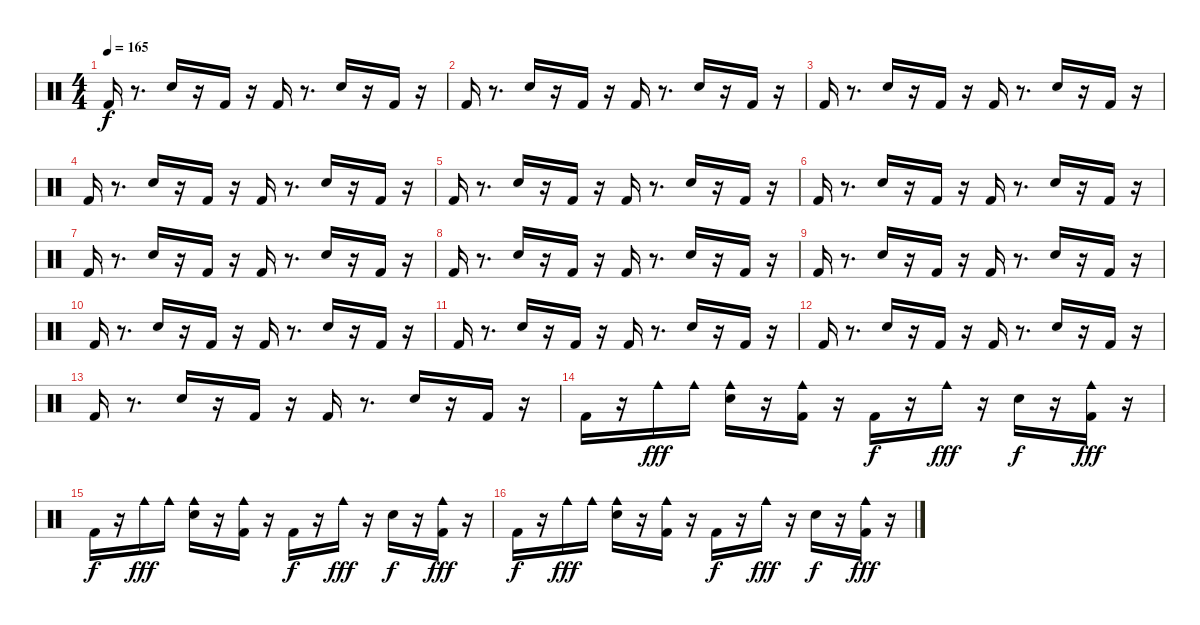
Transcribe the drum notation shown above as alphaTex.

\track "" {instrument percussion}
\staff {score}
\articulation defaults
\ts (4 4)
\tempo 165
\clef neutral
\ks c "Kick (hit) 2".16{dy f}
r.8{d} "Snare (hit) 2".16 r.16 "Kick (hit) 2".16 r.16 "Kick (hit) 2".16 r.8{d} "Snare (hit) 2".16 r.16 "Kick (hit) 2".16 r.16 |
"Kick (hit) 2".16 r.8{d} "Snare (hit) 2".16 r.16 "Kick (hit) 2".16 r.16 "Kick (hit) 2".16 r.8{d} "Snare (hit) 2".16 r.16 "Kick (hit) 2".16 r.16 |
"Kick (hit) 2".16 r.8{d} "Snare (hit) 2".16 r.16 "Kick (hit) 2".16 r.16 "Kick (hit) 2".16 r.8{d} "Snare (hit) 2".16 r.16 "Kick (hit) 2".16 r.16 |
"Kick (hit) 2".16 r.8{d} "Snare (hit) 2".16 r.16 "Kick (hit) 2".16 r.16 "Kick (hit) 2".16 r.8{d} "Snare (hit) 2".16 r.16 "Kick (hit) 2".16 r.16 |
"Kick (hit) 2".16 r.8{d} "Snare (hit) 2".16 r.16 "Kick (hit) 2".16 r.16 "Kick (hit) 2".16 r.8{d} "Snare (hit) 2".16 r.16 "Kick (hit) 2".16 r.16 |
"Kick (hit) 2".16 r.8{d} "Snare (hit) 2".16 r.16 "Kick (hit) 2".16 r.16 "Kick (hit) 2".16 r.8{d} "Snare (hit) 2".16 r.16 "Kick (hit) 2".16 r.16 |
"Kick (hit) 2".16 r.8{d} "Snare (hit) 2".16 r.16 "Kick (hit) 2".16 r.16 "Kick (hit) 2".16 r.8{d} "Snare (hit) 2".16 r.16 "Kick (hit) 2".16 r.16 |
"Kick (hit) 2".16 r.8{d} "Snare (hit) 2".16 r.16 "Kick (hit) 2".16 r.16 "Kick (hit) 2".16 r.8{d} "Snare (hit) 2".16 r.16 "Kick (hit) 2".16 r.16 |
"Kick (hit) 2".16 r.8{d} "Snare (hit) 2".16 r.16 "Kick (hit) 2".16 r.16 "Kick (hit) 2".16 r.8{d} "Snare (hit) 2".16 r.16 "Kick (hit) 2".16 r.16 |
"Kick (hit) 2".16 r.8{d} "Snare (hit) 2".16 r.16 "Kick (hit) 2".16 r.16 "Kick (hit) 2".16 r.8{d} "Snare (hit) 2".16 r.16 "Kick (hit) 2".16 r.16 |
"Kick (hit) 2".16 r.8{d} "Snare (hit) 2".16 r.16 "Kick (hit) 2".16 r.16 "Kick (hit) 2".16 r.8{d} "Snare (hit) 2".16 r.16 "Kick (hit) 2".16 r.16 |
"Kick (hit) 2".16 r.8{d} "Snare (hit) 2".16 r.16 "Kick (hit) 2".16 r.16 "Kick (hit) 2".16 r.8{d} "Snare (hit) 2".16 r.16 "Kick (hit) 2".16 r.16 |
"Kick (hit) 2".16 r.8{d} "Snare (hit) 2".16 r.16 "Kick (hit) 2".16 r.16 "Kick (hit) 2".16 r.8{d} "Snare (hit) 2".16 r.16 "Kick (hit) 2".16 r.16 |
"Kick (hit) 2".16 r.16 "Cowbell medium (hit)".16{dy fff} "Cowbell medium (hit)".16 ("Snare (hit) 2" "Cowbell medium (hit)").16 r.16 ("Kick (hit) 2" "Cowbell medium (hit)").16 r.16 "Kick (hit) 2".16{dy f} r.16 "Cowbell medium (hit)".16{dy fff} r.16 "Snare (hit) 2".16{dy f} r.16 ("Kick (hit) 2" "Cowbell medium (hit)").16{dy fff} r.16 |
"Kick (hit) 2".16{dy f} r.16 "Cowbell medium (hit)".16{dy fff} "Cowbell medium (hit)".16 ("Snare (hit) 2" "Cowbell medium (hit)").16 r.16 ("Kick (hit) 2" "Cowbell medium (hit)").16 r.16 "Kick (hit) 2".16{dy f} r.16 "Cowbell medium (hit)".16{dy fff} r.16 "Snare (hit) 2".16{dy f} r.16 ("Kick (hit) 2" "Cowbell medium (hit)").16{dy fff} r.16 |
"Kick (hit) 2".16{dy f} r.16 "Cowbell medium (hit)".16{dy fff} "Cowbell medium (hit)".16 ("Snare (hit) 2" "Cowbell medium (hit)").16 r.16 ("Kick (hit) 2" "Cowbell medium (hit)").16 r.16 "Kick (hit) 2".16{dy f} r.16 "Cowbell medium (hit)".16{dy fff} r.16 "Snare (hit) 2".16{dy f} r.16 ("Kick (hit) 2" "Cowbell medium (hit)").16{dy fff} r.16
